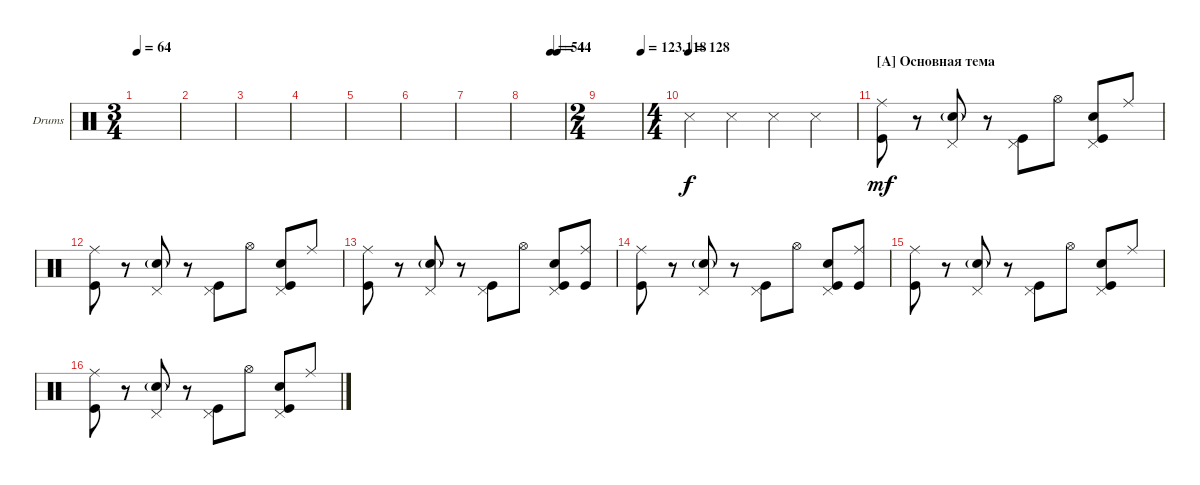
\defaultSystemsLayout 4
\bracketExtendMode groupsimilarinstruments
\firstSystemTrackNameOrientation horizontal
\otherSystemsTrackNameOrientation horizontal
\track ("Drumkit" "Drums") {instrument percussion}
\staff {score}
\articulation defaults
\ts (3 4)
\tempo 64
\clef neutral
\ks c
|
|
|
|
|
|
|
\tempo (54 0.666667)
\tempo (44 0.833333)
|
\ts (2 4)
\tempo (123.118 1)
|
\ts (4 4)
\tempo (128)
"Snare (side stick) 3".4 "Snare (side stick) 3".4 "Snare (side stick) 3".4 "Snare (side stick) 3".4 |
\section ("A" "Основная тема")
("Kick (hit)" "Ride (middle)").8{dy mf} r.8 ("Snare (hit) 2"{g} "Pedal Hi-Hat (hit)").8 r.8 ("Pedal Hi-Hat (hit)" "Kick (hit)").8 "Hi-Hat (open)".8 ("Kick (hit)" "Snare (hit) 2" "Pedal Hi-Hat (hit)").8 "Ride (middle)".8 |
("Kick (hit)" "Ride (middle)").8 r.8 ("Snare (hit) 2"{g} "Pedal Hi-Hat (hit)").8 r.8 ("Pedal Hi-Hat (hit)" "Kick (hit)").8 "Hi-Hat (open)".8 ("Kick (hit)" "Snare (hit) 2" "Pedal Hi-Hat (hit)").8 "Ride (middle)".8 |
("Kick (hit)" "Ride (middle)").8 r.8 ("Snare (hit) 2"{g} "Pedal Hi-Hat (hit)").8 r.8 ("Pedal Hi-Hat (hit)" "Kick (hit)").8 "Hi-Hat (open)".8 ("Kick (hit)" "Snare (hit) 2" "Pedal Hi-Hat (hit)").8 ("Kick (hit)" "Ride (middle)").8 |
("Kick (hit)" "Ride (middle)").8 r.8 ("Snare (hit) 2"{g} "Pedal Hi-Hat (hit)").8 r.8 ("Pedal Hi-Hat (hit)" "Kick (hit)").8 "Hi-Hat (open)".8 ("Kick (hit)" "Snare (hit) 2" "Pedal Hi-Hat (hit)").8 ("Kick (hit)" "Ride (middle)").8 |
("Kick (hit)" "Ride (middle)").8 r.8 ("Snare (hit) 2"{g} "Pedal Hi-Hat (hit)").8 r.8 ("Pedal Hi-Hat (hit)" "Kick (hit)").8 "Hi-Hat (open)".8 ("Kick (hit)" "Snare (hit) 2" "Pedal Hi-Hat (hit)").8 "Ride (middle)".8 |
("Kick (hit)" "Ride (middle)").8 r.8 ("Snare (hit) 2"{g} "Pedal Hi-Hat (hit)").8 r.8 ("Pedal Hi-Hat (hit)" "Kick (hit)").8 "Hi-Hat (open)".8 ("Kick (hit)" "Snare (hit) 2" "Pedal Hi-Hat (hit)").8 "Ride (middle)".8
